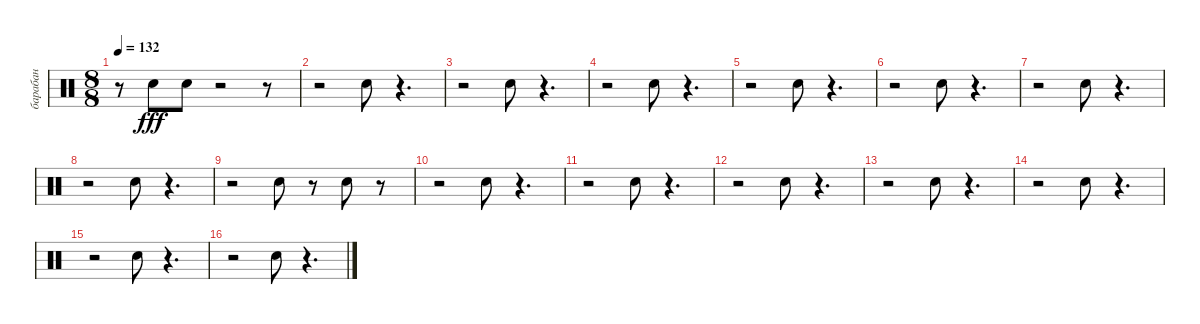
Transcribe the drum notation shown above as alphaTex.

\track ("барабан" "барабан") {instrument percussion}
\staff {score}
\articulation defaults
\ts (8 8)
\tempo 132
\clef neutral
\ks c
r.8{dy fff} "Snare (hit) 2".8 "Snare (hit) 2".8 r.2 r.8 |
r.2 "Snare (hit) 2".8 r.4{d} |
r.2 "Snare (hit) 2".8 r.4{d} |
r.2 "Snare (hit) 2".8 r.4{d} |
r.2 "Snare (hit) 2".8 r.4{d} |
r.2 "Snare (hit) 2".8 r.4{d} |
r.2 "Snare (hit) 2".8 r.4{d} |
r.2 "Snare (hit) 2".8 r.4{d} |
r.2 "Snare (hit) 2".8 r.8 "Snare (hit) 2".8 r.8 |
r.2 "Snare (hit) 2".8 r.4{d} |
r.2 "Snare (hit) 2".8 r.4{d} |
r.2 "Snare (hit) 2".8 r.4{d} |
r.2 "Snare (hit) 2".8 r.4{d} |
r.2 "Snare (hit) 2".8 r.4{d} |
r.2 "Snare (hit) 2".8 r.4{d} |
r.2 "Snare (hit) 2".8 r.4{d}
